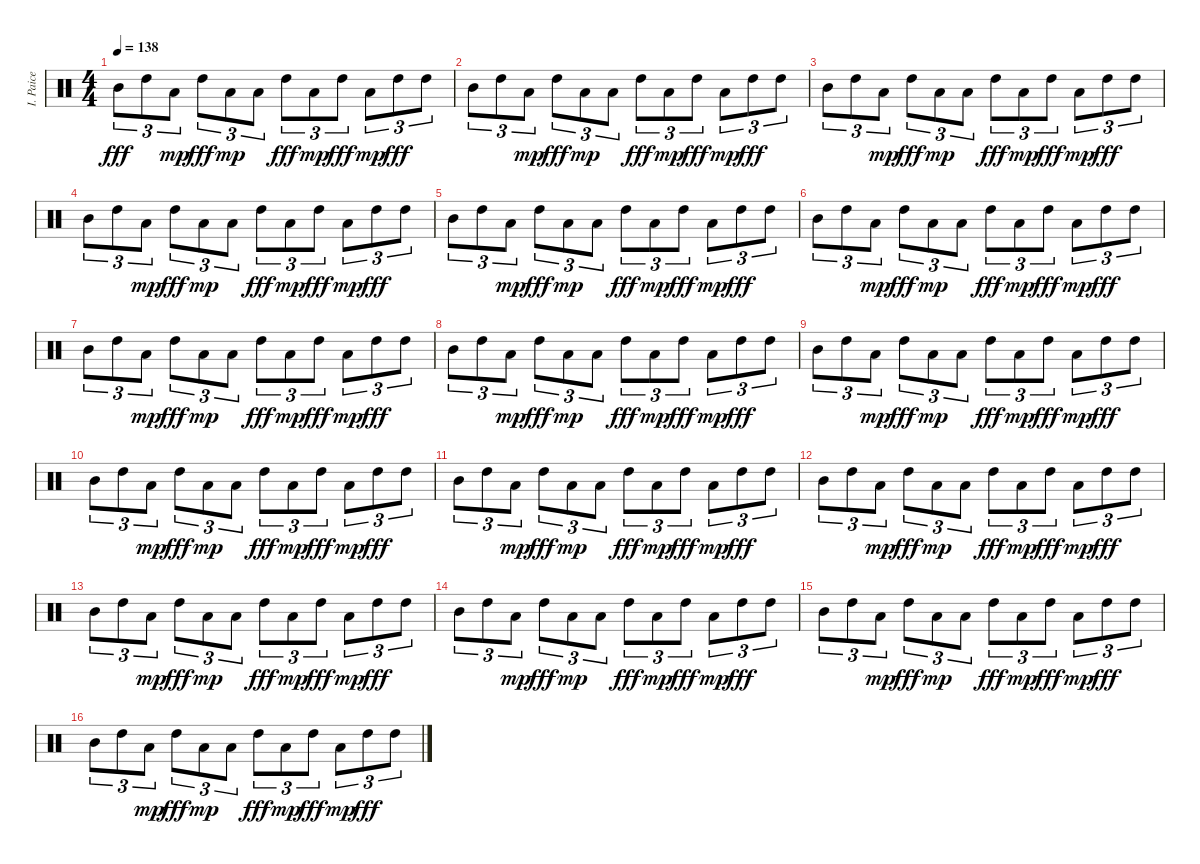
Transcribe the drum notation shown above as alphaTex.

\track ("I. Paice" "I. Paice") {instrument percussion}
\staff {score}
\articulation defaults
\ts (4 4)
\tempo 138
\clef neutral
\ks c "Mid Tom (hit)".8{tu (3 2) dy fff} "High Tom (hit)".8{tu (3 2)} "Low Tom (hit)".8{tu (3 2) dy mp} "High Tom (hit)".8{tu (3 2) dy fff} "Low Tom (hit)".8{tu (3 2) dy mp} "Low Tom (hit)".8{tu (3 2)} "High Tom (hit)".8{tu (3 2) dy fff} "Low Tom (hit)".8{tu (3 2) dy mp} "High Tom (hit)".8{tu (3 2) dy fff} "Low Tom (hit)".8{tu (3 2) dy mp} "High Tom (hit)".8{tu (3 2) dy fff} "High Tom (hit)".8{tu (3 2)}
|
"Mid Tom (hit)".8{tu (3 2)} "High Tom (hit)".8{tu (3 2)} "Low Tom (hit)".8{tu (3 2) dy mp} "High Tom (hit)".8{tu (3 2) dy fff} "Low Tom (hit)".8{tu (3 2) dy mp} "Low Tom (hit)".8{tu (3 2)} "High Tom (hit)".8{tu (3 2) dy fff} "Low Tom (hit)".8{tu (3 2) dy mp} "High Tom (hit)".8{tu (3 2) dy fff} "Low Tom (hit)".8{tu (3 2) dy mp} "High Tom (hit)".8{tu (3 2) dy fff} "High Tom (hit)".8{tu (3 2)} |
"Mid Tom (hit)".8{tu (3 2)} "High Tom (hit)".8{tu (3 2)} "Low Tom (hit)".8{tu (3 2) dy mp} "High Tom (hit)".8{tu (3 2) dy fff} "Low Tom (hit)".8{tu (3 2) dy mp} "Low Tom (hit)".8{tu (3 2)} "High Tom (hit)".8{tu (3 2) dy fff} "Low Tom (hit)".8{tu (3 2) dy mp} "High Tom (hit)".8{tu (3 2) dy fff} "Low Tom (hit)".8{tu (3 2) dy mp} "High Tom (hit)".8{tu (3 2) dy fff} "High Tom (hit)".8{tu (3 2)} |
"Mid Tom (hit)".8{tu (3 2)} "High Tom (hit)".8{tu (3 2)} "Low Tom (hit)".8{tu (3 2) dy mp} "High Tom (hit)".8{tu (3 2) dy fff} "Low Tom (hit)".8{tu (3 2) dy mp} "Low Tom (hit)".8{tu (3 2)} "High Tom (hit)".8{tu (3 2) dy fff} "Low Tom (hit)".8{tu (3 2) dy mp} "High Tom (hit)".8{tu (3 2) dy fff} "Low Tom (hit)".8{tu (3 2) dy mp} "High Tom (hit)".8{tu (3 2) dy fff} "High Tom (hit)".8{tu (3 2)} |
"Mid Tom (hit)".8{tu (3 2)} "High Tom (hit)".8{tu (3 2)} "Low Tom (hit)".8{tu (3 2) dy mp} "High Tom (hit)".8{tu (3 2) dy fff} "Low Tom (hit)".8{tu (3 2) dy mp} "Low Tom (hit)".8{tu (3 2)} "High Tom (hit)".8{tu (3 2) dy fff} "Low Tom (hit)".8{tu (3 2) dy mp} "High Tom (hit)".8{tu (3 2) dy fff} "Low Tom (hit)".8{tu (3 2) dy mp} "High Tom (hit)".8{tu (3 2) dy fff} "High Tom (hit)".8{tu (3 2)} |
"Mid Tom (hit)".8{tu (3 2)} "High Tom (hit)".8{tu (3 2)} "Low Tom (hit)".8{tu (3 2) dy mp} "High Tom (hit)".8{tu (3 2) dy fff} "Low Tom (hit)".8{tu (3 2) dy mp} "Low Tom (hit)".8{tu (3 2)} "High Tom (hit)".8{tu (3 2) dy fff} "Low Tom (hit)".8{tu (3 2) dy mp} "High Tom (hit)".8{tu (3 2) dy fff} "Low Tom (hit)".8{tu (3 2) dy mp} "High Tom (hit)".8{tu (3 2) dy fff} "High Tom (hit)".8{tu (3 2)} |
"Mid Tom (hit)".8{tu (3 2)} "High Tom (hit)".8{tu (3 2)} "Low Tom (hit)".8{tu (3 2) dy mp} "High Tom (hit)".8{tu (3 2) dy fff} "Low Tom (hit)".8{tu (3 2) dy mp} "Low Tom (hit)".8{tu (3 2)} "High Tom (hit)".8{tu (3 2) dy fff} "Low Tom (hit)".8{tu (3 2) dy mp} "High Tom (hit)".8{tu (3 2) dy fff} "Low Tom (hit)".8{tu (3 2) dy mp} "High Tom (hit)".8{tu (3 2) dy fff} "High Tom (hit)".8{tu (3 2)} |
"Mid Tom (hit)".8{tu (3 2)} "High Tom (hit)".8{tu (3 2)} "Low Tom (hit)".8{tu (3 2) dy mp} "High Tom (hit)".8{tu (3 2) dy fff} "Low Tom (hit)".8{tu (3 2) dy mp} "Low Tom (hit)".8{tu (3 2)} "High Tom (hit)".8{tu (3 2) dy fff} "Low Tom (hit)".8{tu (3 2) dy mp} "High Tom (hit)".8{tu (3 2) dy fff} "Low Tom (hit)".8{tu (3 2) dy mp} "High Tom (hit)".8{tu (3 2) dy fff} "High Tom (hit)".8{tu (3 2)} |
"Mid Tom (hit)".8{tu (3 2)} "High Tom (hit)".8{tu (3 2)} "Low Tom (hit)".8{tu (3 2) dy mp} "High Tom (hit)".8{tu (3 2) dy fff} "Low Tom (hit)".8{tu (3 2) dy mp} "Low Tom (hit)".8{tu (3 2)} "High Tom (hit)".8{tu (3 2) dy fff} "Low Tom (hit)".8{tu (3 2) dy mp} "High Tom (hit)".8{tu (3 2) dy fff} "Low Tom (hit)".8{tu (3 2) dy mp} "High Tom (hit)".8{tu (3 2) dy fff} "High Tom (hit)".8{tu (3 2)} |
"Mid Tom (hit)".8{tu (3 2)} "High Tom (hit)".8{tu (3 2)} "Low Tom (hit)".8{tu (3 2) dy mp} "High Tom (hit)".8{tu (3 2) dy fff} "Low Tom (hit)".8{tu (3 2) dy mp} "Low Tom (hit)".8{tu (3 2)} "High Tom (hit)".8{tu (3 2) dy fff} "Low Tom (hit)".8{tu (3 2) dy mp} "High Tom (hit)".8{tu (3 2) dy fff} "Low Tom (hit)".8{tu (3 2) dy mp} "High Tom (hit)".8{tu (3 2) dy fff} "High Tom (hit)".8{tu (3 2)} |
"Mid Tom (hit)".8{tu (3 2)} "High Tom (hit)".8{tu (3 2)} "Low Tom (hit)".8{tu (3 2) dy mp} "High Tom (hit)".8{tu (3 2) dy fff} "Low Tom (hit)".8{tu (3 2) dy mp} "Low Tom (hit)".8{tu (3 2)} "High Tom (hit)".8{tu (3 2) dy fff} "Low Tom (hit)".8{tu (3 2) dy mp} "High Tom (hit)".8{tu (3 2) dy fff} "Low Tom (hit)".8{tu (3 2) dy mp} "High Tom (hit)".8{tu (3 2) dy fff} "High Tom (hit)".8{tu (3 2)} |
"Mid Tom (hit)".8{tu (3 2)} "High Tom (hit)".8{tu (3 2)} "Low Tom (hit)".8{tu (3 2) dy mp} "High Tom (hit)".8{tu (3 2) dy fff} "Low Tom (hit)".8{tu (3 2) dy mp} "Low Tom (hit)".8{tu (3 2)} "High Tom (hit)".8{tu (3 2) dy fff} "Low Tom (hit)".8{tu (3 2) dy mp} "High Tom (hit)".8{tu (3 2) dy fff} "Low Tom (hit)".8{tu (3 2) dy mp} "High Tom (hit)".8{tu (3 2) dy fff} "High Tom (hit)".8{tu (3 2)} |
"Mid Tom (hit)".8{tu (3 2)} "High Tom (hit)".8{tu (3 2)} "Low Tom (hit)".8{tu (3 2) dy mp} "High Tom (hit)".8{tu (3 2) dy fff} "Low Tom (hit)".8{tu (3 2) dy mp} "Low Tom (hit)".8{tu (3 2)} "High Tom (hit)".8{tu (3 2) dy fff} "Low Tom (hit)".8{tu (3 2) dy mp} "High Tom (hit)".8{tu (3 2) dy fff} "Low Tom (hit)".8{tu (3 2) dy mp} "High Tom (hit)".8{tu (3 2) dy fff} "High Tom (hit)".8{tu (3 2)} |
"Mid Tom (hit)".8{tu (3 2)} "High Tom (hit)".8{tu (3 2)} "Low Tom (hit)".8{tu (3 2) dy mp} "High Tom (hit)".8{tu (3 2) dy fff} "Low Tom (hit)".8{tu (3 2) dy mp} "Low Tom (hit)".8{tu (3 2)} "High Tom (hit)".8{tu (3 2) dy fff} "Low Tom (hit)".8{tu (3 2) dy mp} "High Tom (hit)".8{tu (3 2) dy fff} "Low Tom (hit)".8{tu (3 2) dy mp} "High Tom (hit)".8{tu (3 2) dy fff} "High Tom (hit)".8{tu (3 2)} |
"Mid Tom (hit)".8{tu (3 2)} "High Tom (hit)".8{tu (3 2)} "Low Tom (hit)".8{tu (3 2) dy mp} "High Tom (hit)".8{tu (3 2) dy fff} "Low Tom (hit)".8{tu (3 2) dy mp} "Low Tom (hit)".8{tu (3 2)} "High Tom (hit)".8{tu (3 2) dy fff} "Low Tom (hit)".8{tu (3 2) dy mp} "High Tom (hit)".8{tu (3 2) dy fff} "Low Tom (hit)".8{tu (3 2) dy mp} "High Tom (hit)".8{tu (3 2) dy fff} "High Tom (hit)".8{tu (3 2)} |
"Mid Tom (hit)".8{tu (3 2)} "High Tom (hit)".8{tu (3 2)} "Low Tom (hit)".8{tu (3 2) dy mp} "High Tom (hit)".8{tu (3 2) dy fff} "Low Tom (hit)".8{tu (3 2) dy mp} "Low Tom (hit)".8{tu (3 2)} "High Tom (hit)".8{tu (3 2) dy fff} "Low Tom (hit)".8{tu (3 2) dy mp} "High Tom (hit)".8{tu (3 2) dy fff} "Low Tom (hit)".8{tu (3 2) dy mp} "High Tom (hit)".8{tu (3 2) dy fff} "High Tom (hit)".8{tu (3 2)}
